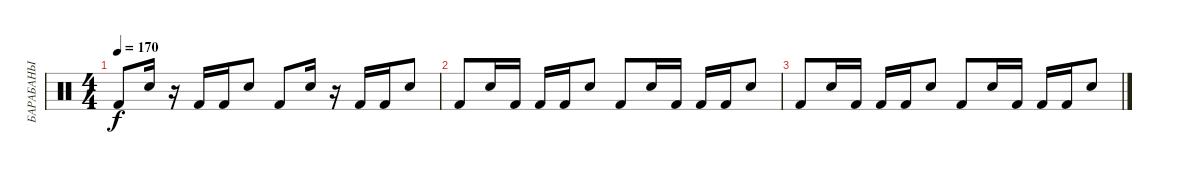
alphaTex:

\track ("БАРАБАНЫ" "БАРАБАНЫ") {instrument percussion}
\staff {score}
\articulation defaults
\ts (4 4)
\tempo 170
\clef neutral
\ks c "Kick (hit) 2".8{dy f} "Electric Snare (hit)".16
r.16 "Kick (hit) 2".16 "Kick (hit) 2".16 "Electric Snare (hit)".8 "Kick (hit) 2".8 "Electric Snare (hit)".16 r.16 "Kick (hit) 2".16 "Kick (hit) 2".16 "Electric Snare (hit)".8 |
"Kick (hit) 2".8 "Electric Snare (hit)".16 "Kick (hit) 2".16 "Kick (hit) 2".16 "Kick (hit) 2".16 "Electric Snare (hit)".8 "Kick (hit) 2".8 "Electric Snare (hit)".16 "Kick (hit) 2".16 "Kick (hit) 2".16 "Kick (hit) 2".16 "Electric Snare (hit)".8 |
"Kick (hit) 2".8 "Electric Snare (hit)".16 "Kick (hit) 2".16 "Kick (hit) 2".16 "Kick (hit) 2".16 "Electric Snare (hit)".8 "Kick (hit) 2".8 "Electric Snare (hit)".16 "Kick (hit) 2".16 "Kick (hit) 2".16 "Kick (hit) 2".16 "Electric Snare (hit)".8
